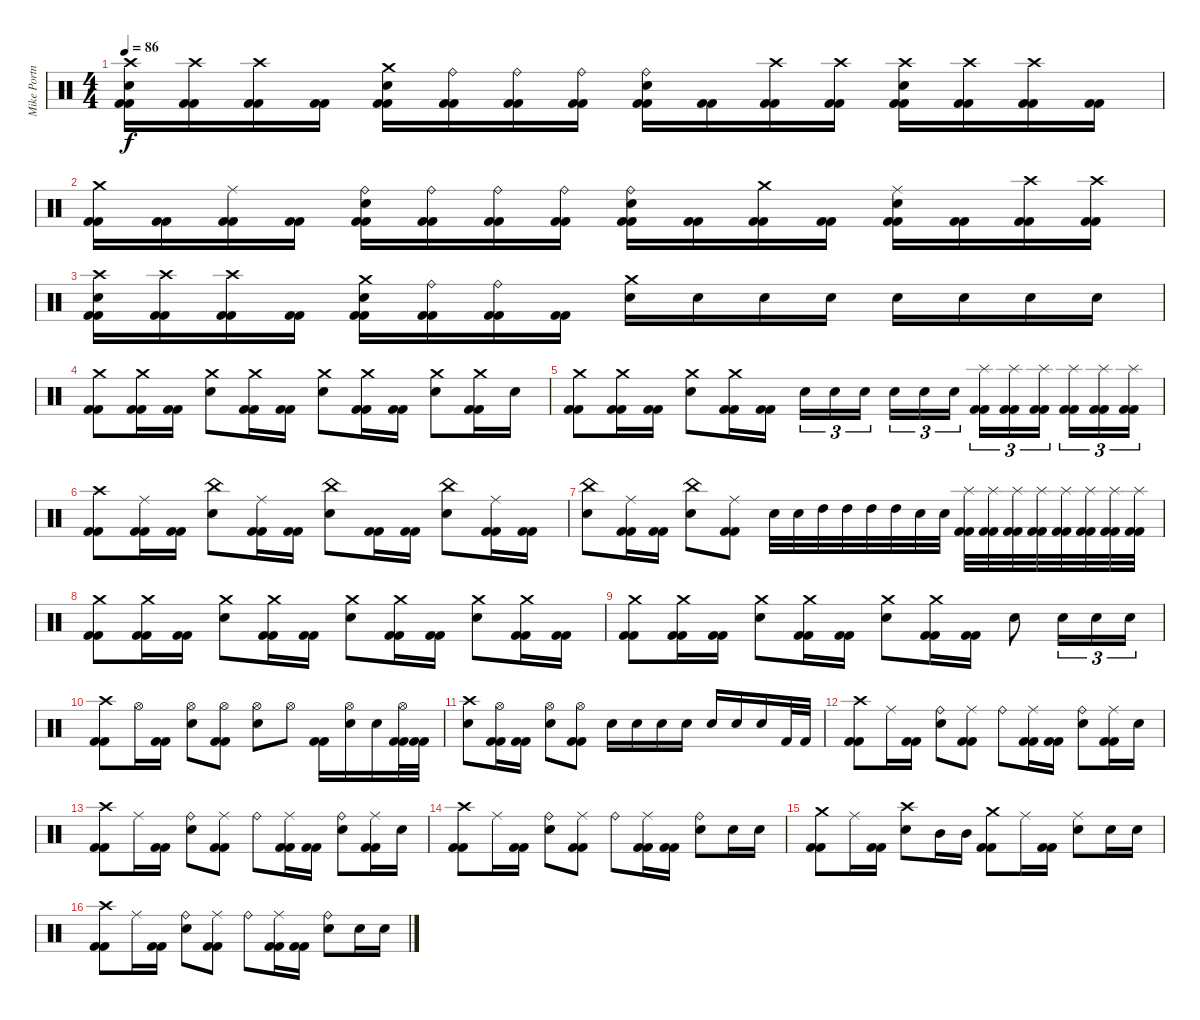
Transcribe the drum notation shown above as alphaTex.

\track ("Mike Portnoy - Drum" "Mike Portn") {instrument percussion}
\staff {score}
\articulation defaults
\ts (4 4)
\tempo 86
\clef neutral
\ks c
("Crash high (hit)" "Snare (hit) 2" "Kick (hit) 2" "Kick (hit) 2").16{dy f} ("Crash high (hit)" "Kick (hit) 2" "Kick (hit) 2").16 ("Crash high (hit)" "Kick (hit) 2" "Kick (hit) 2").16 ("Kick (hit) 2" "Kick (hit) 2").16 ("Crash medium (hit)" "Snare (hit) 2" "Kick (hit) 2" "Kick (hit) 2").16 ("Ride (bell)" "Kick (hit) 2" "Kick (hit) 2").16 ("Ride (bell)" "Kick (hit) 2" "Kick (hit) 2").16 ("Ride (bell)" "Kick (hit) 2" "Kick (hit) 2").16 ("Ride (bell)" "Snare (hit) 2" "Kick (hit) 2" "Kick (hit) 2").16 ("Kick (hit) 2" "Kick (hit) 2").16 ("Crash high (hit)" "Kick (hit) 2" "Kick (hit) 2").16 ("Crash high (hit)" "Kick (hit) 2" "Kick (hit) 2").16 ("Crash high (hit)" "Snare (hit) 2" "Kick (hit) 2" "Kick (hit) 2").16 ("Crash high (hit)" "Kick (hit) 2" "Kick (hit) 2").16 ("Crash high (hit)" "Kick (hit) 2" "Kick (hit) 2").16 ("Kick (hit) 2" "Kick (hit) 2").16 |
("Crash medium (hit)" "Kick (hit) 2" "Kick (hit) 2").16 ("Kick (hit) 2" "Kick (hit) 2").16 ("Ride (middle)" "Kick (hit) 2" "Kick (hit) 2").16 ("Kick (hit) 2" "Kick (hit) 2").16 ("Ride (bell)" "Snare (hit) 2" "Kick (hit) 2" "Kick (hit) 2").16 ("Ride (bell)" "Kick (hit) 2" "Kick (hit) 2").16 ("Ride (bell)" "Kick (hit) 2" "Kick (hit) 2").16 ("Ride (bell)" "Kick (hit) 2" "Kick (hit) 2").16 ("Ride (bell)" "Snare (hit) 2" "Kick (hit) 2" "Kick (hit) 2").16 ("Kick (hit) 2" "Kick (hit) 2").16 ("Crash medium (hit)" "Kick (hit) 2" "Kick (hit) 2").16 ("Kick (hit) 2" "Kick (hit) 2").16 ("Ride (middle)" "Snare (hit) 2" "Kick (hit) 2" "Kick (hit) 2").16 ("Kick (hit) 2" "Kick (hit) 2").16 ("Crash high (hit)" "Kick (hit) 2" "Kick (hit) 2").16 ("Crash high (hit)" "Kick (hit) 2" "Kick (hit) 2").16 |
("Crash high (hit)" "Snare (hit) 2" "Kick (hit) 2" "Kick (hit) 2").16 ("Crash high (hit)" "Kick (hit) 2" "Kick (hit) 2").16 ("Crash high (hit)" "Kick (hit) 2" "Kick (hit) 2").16 ("Kick (hit) 2" "Kick (hit) 2").16 ("Crash medium (hit)" "Snare (hit) 2" "Kick (hit) 2" "Kick (hit) 2").16 ("Ride (bell)" "Kick (hit) 2" "Kick (hit) 2").16 ("Ride (bell)" "Kick (hit) 2" "Kick (hit) 2").16 ("Kick (hit) 2" "Kick (hit) 2").16 ("Crash medium (hit)" "Snare (hit) 2").16 "Snare (hit) 2".16 "Snare (hit) 2".16 "Snare (hit) 2".16 "Snare (hit) 2".16 "Snare (hit) 2".16 "Snare (hit) 2".16 "Snare (hit) 2".16 |
("Crash medium (hit)" "Kick (hit) 2" "Kick (hit) 2").8 ("Crash medium (hit)" "Kick (hit) 2" "Kick (hit) 2").16 ("Kick (hit) 2" "Kick (hit) 2").16 ("Crash medium (hit)" "Snare (hit) 2").8 ("Crash medium (hit)" "Kick (hit) 2" "Kick (hit) 2").16 ("Kick (hit) 2" "Kick (hit) 2").16 ("Crash medium (hit)" "Snare (hit) 2").8 ("Crash medium (hit)" "Kick (hit) 2" "Kick (hit) 2").16 ("Kick (hit) 2" "Kick (hit) 2").16 ("Crash medium (hit)" "Snare (hit) 2").8 ("Crash medium (hit)" "Kick (hit) 2" "Kick (hit) 2").16 "Snare (hit) 2".16 |
("Crash medium (hit)" "Kick (hit) 2" "Kick (hit) 2").8 ("Crash medium (hit)" "Kick (hit) 2" "Kick (hit) 2").16 ("Kick (hit) 2" "Kick (hit) 2").16 ("Crash medium (hit)" "Snare (hit) 2").8 ("Crash medium (hit)" "Kick (hit) 2" "Kick (hit) 2").16 ("Kick (hit) 2" "Kick (hit) 2").16 "Snare (hit) 2".16{tu (3 2)} "Snare (hit) 2".16{tu (3 2)} "Snare (hit) 2".16{tu (3 2)} "Snare (hit) 2".16{tu (3 2)} "Snare (hit) 2".16{tu (3 2)} "Snare (hit) 2".16{tu (3 2)} ("Splash (hit)" "Kick (hit) 2" "Kick (hit) 2").16{tu (3 2)} ("Splash (hit)" "Kick (hit) 2" "Kick (hit) 2").16{tu (3 2)} ("Splash (hit)" "Kick (hit) 2" "Kick (hit) 2").16{tu (3 2)} ("Splash (hit)" "Kick (hit) 2" "Kick (hit) 2").16{tu (3 2)} ("Splash (hit)" "Kick (hit) 2" "Kick (hit) 2").16{tu (3 2)} ("Splash (hit)" "Kick (hit) 2" "Kick (hit) 2").16{tu (3 2)} |
("Crash high (hit)" "Kick (hit) 2" "Kick (hit) 2").8 ("Ride (middle)" "Kick (hit) 2" "Kick (hit) 2").16 ("Kick (hit) 2" "Kick (hit) 2").16 ("China (hit)" "Snare (hit) 2").8 ("Ride (middle)" "Kick (hit) 2" "Kick (hit) 2").16 ("Kick (hit) 2" "Kick (hit) 2").16 ("China (hit)" "Snare (hit) 2").8 ("Kick (hit) 2" "Kick (hit) 2").16 ("Kick (hit) 2" "Kick (hit) 2").16 ("China (hit)" "Snare (hit) 2").8 ("Ride (middle)" "Kick (hit) 2" "Kick (hit) 2").16 ("Kick (hit) 2" "Kick (hit) 2").16 |
("China (hit)" "Snare (hit) 2").8 ("Ride (middle)" "Kick (hit) 2" "Kick (hit) 2").16 ("Kick (hit) 2" "Kick (hit) 2").16 ("China (hit)" "Snare (hit) 2").8 ("Ride (middle)" "Kick (hit) 2" "Kick (hit) 2").8 "Snare (hit) 2".32 "Snare (hit) 2".32 "High Tom (hit)".32 "High Tom (hit)".32 "High Tom (hit)".32 "High Tom (hit)".32 "Snare (hit) 2".32 "Snare (hit) 2".32 ("Splash (hit)" "Kick (hit) 2" "Kick (hit) 2").32 ("Splash (hit)" "Kick (hit) 2" "Kick (hit) 2").32 ("Splash (hit)" "Kick (hit) 2" "Kick (hit) 2").32 ("Splash (hit)" "Kick (hit) 2" "Kick (hit) 2").32 ("Splash (hit)" "Kick (hit) 2" "Kick (hit) 2").32 ("Splash (hit)" "Kick (hit) 2" "Kick (hit) 2").32 ("Splash (hit)" "Kick (hit) 2" "Kick (hit) 2").32 ("Splash (hit)" "Kick (hit) 2" "Kick (hit) 2").32 |
("Crash medium (hit)" "Kick (hit) 2" "Kick (hit) 2").8 ("Crash medium (hit)" "Kick (hit) 2" "Kick (hit) 2").16 ("Kick (hit) 2" "Kick (hit) 2").16 ("Crash medium (hit)" "Snare (hit) 2").8 ("Crash medium (hit)" "Kick (hit) 2" "Kick (hit) 2").16 ("Kick (hit) 2" "Kick (hit) 2").16 ("Crash medium (hit)" "Snare (hit) 2").8 ("Crash medium (hit)" "Kick (hit) 2" "Kick (hit) 2").16 ("Kick (hit) 2" "Kick (hit) 2").16 ("Crash medium (hit)" "Snare (hit) 2").8 ("Crash medium (hit)" "Kick (hit) 2" "Kick (hit) 2").16 ("Kick (hit) 2" "Kick (hit) 2").16 |
("Crash medium (hit)" "Kick (hit) 2" "Kick (hit) 2").8 ("Crash medium (hit)" "Kick (hit) 2" "Kick (hit) 2").16 ("Kick (hit) 2" "Kick (hit) 2").16 ("Crash medium (hit)" "Snare (hit) 2").8 ("Crash medium (hit)" "Kick (hit) 2" "Kick (hit) 2").16 ("Kick (hit) 2" "Kick (hit) 2").16 ("Crash medium (hit)" "Snare (hit) 2").8 ("Crash medium (hit)" "Kick (hit) 2" "Kick (hit) 2").16 ("Kick (hit) 2" "Kick (hit) 2").16 "Snare (hit) 2".8 "Snare (hit) 2".16{tu (3 2)} "Snare (hit) 2".16{tu (3 2)} "Snare (hit) 2".16{tu (3 2)} |
("Crash high (hit)" "Kick (hit) 2" "Kick (hit) 2").8 "Hi-Hat (open)".16 ("Kick (hit) 2" "Kick (hit) 2").16 ("Hi-Hat (open)" "Snare (hit) 2").8 ("Hi-Hat (open)" "Kick (hit) 2" "Kick (hit) 2").8 ("Hi-Hat (open)" "Snare (hit) 2").8 "Hi-Hat (open)".8 ("Kick (hit) 2" "Kick (hit) 2").16 ("Hi-Hat (open)" "Snare (hit) 2").16 "Snare (hit) 2".16 ("Hi-Hat (open)" "Kick (hit) 2" "Kick (hit) 2").32 ("Kick (hit) 2" "Kick (hit) 2").32 |
("Crash high (hit)" "Snare (hit) 2").8 ("Hi-Hat (open)" "Kick (hit) 2" "Kick (hit) 2").16 ("Kick (hit) 2" "Kick (hit) 2").16 ("Hi-Hat (open)" "Snare (hit) 2").8 ("Hi-Hat (open)" "Kick (hit) 2" "Kick (hit) 2").8 "Snare (hit) 2".16 "Snare (hit) 2".16 "Snare (hit) 2".16 "Snare (hit) 2".16 "Snare (hit) 2".16 "Snare (hit) 2".16 "Snare (hit) 2".16 "Kick (hit) 2".32 "Kick (hit) 2".32 |
("Crash high (hit)" "Kick (hit) 2" "Kick (hit) 2").8 "Ride (middle)".16 ("Kick (hit) 2" "Kick (hit) 2").16 ("Ride (bell)" "Snare (hit) 2").8 ("Ride (middle)" "Kick (hit) 2" "Kick (hit) 2").8 "Ride (bell)".8 ("Ride (middle)" "Kick (hit) 2" "Kick (hit) 2").16 ("Kick (hit) 2" "Kick (hit) 2").16 ("Ride (bell)" "Snare (hit) 2").8 ("Ride (middle)" "Kick (hit) 2" "Kick (hit) 2").16 "Snare (hit) 2".16 |
("Crash high (hit)" "Kick (hit) 2" "Kick (hit) 2").8 "Ride (middle)".16 ("Kick (hit) 2" "Kick (hit) 2").16 ("Ride (bell)" "Snare (hit) 2").8 ("Ride (middle)" "Kick (hit) 2" "Kick (hit) 2").8 "Ride (bell)".8 ("Ride (middle)" "Kick (hit) 2" "Kick (hit) 2").16 ("Kick (hit) 2" "Kick (hit) 2").16 ("Ride (bell)" "Snare (hit) 2").8 ("Ride (middle)" "Kick (hit) 2" "Kick (hit) 2").16 "Snare (hit) 2".16 |
("Crash high (hit)" "Kick (hit) 2" "Kick (hit) 2").8 "Ride (middle)".16 ("Kick (hit) 2" "Kick (hit) 2").16 ("Ride (bell)" "Snare (hit) 2").8 ("Ride (middle)" "Kick (hit) 2" "Kick (hit) 2").8 "Ride (bell)".8 ("Ride (middle)" "Kick (hit) 2" "Kick (hit) 2").16 ("Kick (hit) 2" "Kick (hit) 2").16 ("Ride (bell)" "Snare (hit) 2").8 "Snare (hit) 2".16 "Snare (hit) 2".16 |
("Crash medium (hit)" "Kick (hit) 2" "Kick (hit) 2").8 "Ride (middle)".16 ("Kick (hit) 2" "Kick (hit) 2").16 ("Crash high (hit)" "Snare (hit) 2").8 "Mid Tom (hit)".16 "Mid Tom (hit)".16 ("Crash medium (hit)" "Kick (hit) 2" "Kick (hit) 2").8 "Ride (middle)".16 ("Kick (hit) 2" "Kick (hit) 2").16 ("Ride (middle)" "Snare (hit) 2").8 "Snare (hit) 2".16 "Snare (hit) 2".16 |
("Crash high (hit)" "Kick (hit) 2" "Kick (hit) 2").8 "Ride (middle)".16 ("Kick (hit) 2" "Kick (hit) 2").16 ("Ride (bell)" "Snare (hit) 2").8 ("Ride (middle)" "Kick (hit) 2" "Kick (hit) 2").8 "Ride (bell)".8 ("Ride (middle)" "Kick (hit) 2" "Kick (hit) 2").16 ("Kick (hit) 2" "Kick (hit) 2").16 ("Ride (bell)" "Snare (hit) 2").8 "Snare (hit) 2".16 "Snare (hit) 2".16
